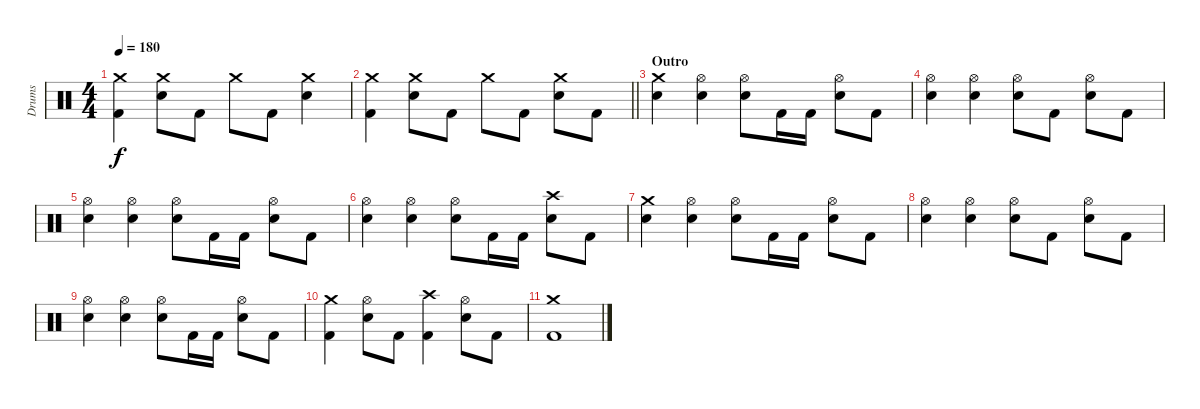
\track ("Drums" "Drums") {instrument percussion}
\staff {score}
\articulation defaults
\ts (4 4)
\tempo 180
\clef neutral
\ks c
("Crash medium (hit)" "Kick (hit) 2").4{dy f} ("Crash medium (hit)" "Electric Snare (hit)").8 "Kick (hit) 2".8 "Crash medium (hit)".8 "Kick (hit) 2".8 ("Crash medium (hit)" "Electric Snare (hit)").4 |
\barLineRight lightlight
("Crash medium (hit)" "Kick (hit) 2").4 ("Crash medium (hit)" "Electric Snare (hit)").8 "Kick (hit) 2".8 "Crash medium (hit)".8 "Kick (hit) 2".8 ("Crash medium (hit)" "Electric Snare (hit)").8 "Kick (hit) 2".8 |
\section ("" "Outro")
("Crash medium (hit)" "Electric Snare (hit)").4 ("Hi-Hat (open)" "Electric Snare (hit)").4 ("Hi-Hat (open)" "Electric Snare (hit)").8 "Kick (hit) 2".16 "Kick (hit) 2".16 ("Hi-Hat (open)" "Electric Snare (hit)").8 "Kick (hit) 2".8 |
("Hi-Hat (open)" "Electric Snare (hit)").4 ("Hi-Hat (open)" "Electric Snare (hit)").4 ("Hi-Hat (open)" "Electric Snare (hit)").8 "Kick (hit) 2".8 ("Hi-Hat (open)" "Electric Snare (hit)").8 "Kick (hit) 2".8 |
("Hi-Hat (open)" "Electric Snare (hit)").4 ("Hi-Hat (open)" "Electric Snare (hit)").4 ("Hi-Hat (open)" "Electric Snare (hit)").8 "Kick (hit) 2".16 "Kick (hit) 2".16 ("Hi-Hat (open)" "Electric Snare (hit)").8 "Kick (hit) 2".8 |
("Hi-Hat (open)" "Electric Snare (hit)").4 ("Hi-Hat (open)" "Electric Snare (hit)").4 ("Hi-Hat (open)" "Electric Snare (hit)").8 "Kick (hit) 2".16 "Kick (hit) 2".16 ("Crash high (hit)" "Electric Snare (hit)").8 "Kick (hit) 2".8 |
("Crash medium (hit)" "Electric Snare (hit)").4 ("Hi-Hat (open)" "Electric Snare (hit)").4 ("Hi-Hat (open)" "Electric Snare (hit)").8 "Kick (hit) 2".16 "Kick (hit) 2".16 ("Hi-Hat (open)" "Electric Snare (hit)").8 "Kick (hit) 2".8 |
("Hi-Hat (open)" "Electric Snare (hit)").4 ("Hi-Hat (open)" "Electric Snare (hit)").4 ("Hi-Hat (open)" "Electric Snare (hit)").8 "Kick (hit) 2".8 ("Hi-Hat (open)" "Electric Snare (hit)").8 "Kick (hit) 2".8 |
("Hi-Hat (open)" "Electric Snare (hit)").4 ("Hi-Hat (open)" "Electric Snare (hit)").4 ("Hi-Hat (open)" "Electric Snare (hit)").8 "Kick (hit) 2".16 "Kick (hit) 2".16 ("Hi-Hat (open)" "Electric Snare (hit)").8 "Kick (hit) 2".8 |
("Crash medium (hit)" "Kick (hit) 2").4 ("Hi-Hat (open)" "Electric Snare (hit)").8 "Kick (hit) 2".8 ("Crash high (hit)" "Kick (hit) 2").4 ("Hi-Hat (open)" "Electric Snare (hit)").8 "Kick (hit) 2".8 |
("Crash medium (hit)" "Kick (hit) 2").1
